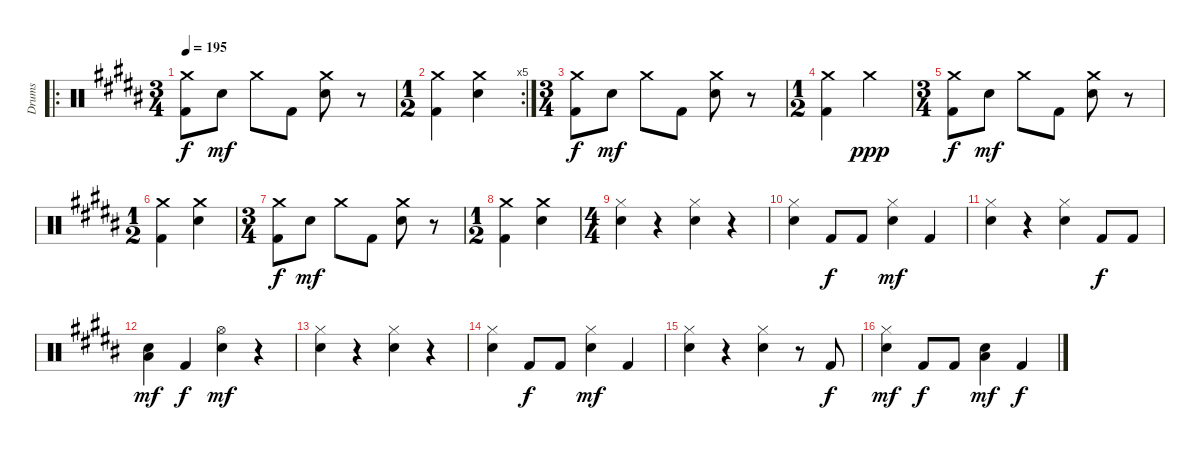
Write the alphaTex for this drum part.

\track ("Drums" "Drums") {instrument percussion}
\staff {score}
\articulation defaults
\ro
\ts (3 4)
\tempo 195
\clef neutral
\ks b
("Crash medium (hit)" "Kick (hit) 2").8{dy f} "Electric Snare (hit)".8{dy mf} "Crash medium (hit)".8 "Kick (hit) 2".8 ("Crash medium (hit)" "Electric Snare (hit)").8 r.8 |
\rc 5
\ts (1 2)
("Crash medium (hit)" "Kick (hit) 2").4 ("Crash medium (hit)" "Electric Snare (hit)").4 |
\ts (3 4)
("Crash medium (hit)" "Kick (hit) 2").8{dy f} "Electric Snare (hit)".8{dy mf} "Crash medium (hit)".8 "Kick (hit) 2".8 ("Crash medium (hit)" "Electric Snare (hit)").8 r.8 |
\ts (1 2)
("Crash medium (hit)" "Kick (hit) 2").4 "Crash medium (hit)".4{dy ppp} |
\ts (3 4)
("Crash medium (hit)" "Kick (hit) 2").8{dy f} "Electric Snare (hit)".8{dy mf} "Crash medium (hit)".8 "Kick (hit) 2".8 ("Crash medium (hit)" "Electric Snare (hit)").8 r.8 |
\ts (1 2)
("Crash medium (hit)" "Kick (hit) 2").4 ("Crash medium (hit)" "Electric Snare (hit)").4 |
\ts (3 4)
("Crash medium (hit)" "Kick (hit) 2").8{dy f} "Electric Snare (hit)".8{dy mf} "Crash medium (hit)".8 "Kick (hit) 2".8 ("Crash medium (hit)" "Electric Snare (hit)").8 r.8 |
\ts (1 2)
("Crash medium (hit)" "Kick (hit) 2").4 ("Crash medium (hit)" "Electric Snare (hit)").4 |
\ts (4 4)
("Hi-Hat (closed)" "Electric Snare (hit)").4 r.4 ("Hi-Hat (closed)" "Electric Snare (hit)").4 r.4 |
("Hi-Hat (closed)" "Electric Snare (hit)").4 "Kick (hit) 2".8{dy f} "Kick (hit) 2".8 ("Hi-Hat (closed)" "Electric Snare (hit)").4{dy mf} "Kick (hit) 2".4 |
("Hi-Hat (closed)" "Electric Snare (hit)").4 r.4 ("Hi-Hat (closed)" "Electric Snare (hit)").4 "Kick (hit) 2".8{dy f} "Kick (hit) 2".8 |
("Electric Snare (hit)" "Low Floor Tom (hit)").4{dy mf} "Kick (hit) 2".4{dy f} ("Hi-Hat (open)" "Electric Snare (hit)").4{dy mf} r.4 |
("Hi-Hat (closed)" "Electric Snare (hit)").4 r.4 ("Hi-Hat (closed)" "Electric Snare (hit)").4 r.4 |
("Hi-Hat (closed)" "Electric Snare (hit)").4 "Kick (hit) 2".8{dy f} "Kick (hit) 2".8 ("Hi-Hat (closed)" "Electric Snare (hit)").4{dy mf} "Kick (hit) 2".4 |
("Hi-Hat (closed)" "Electric Snare (hit)").4 r.4 ("Hi-Hat (closed)" "Electric Snare (hit)").4 r.8 "Kick (hit) 2".8{dy f} |
("Hi-Hat (closed)" "Electric Snare (hit)").4{dy mf} "Kick (hit) 2".8{dy f} "Kick (hit) 2".8 ("Electric Snare (hit)" "Low Floor Tom (hit)").4{dy mf} "Kick (hit) 2".4{dy f}
